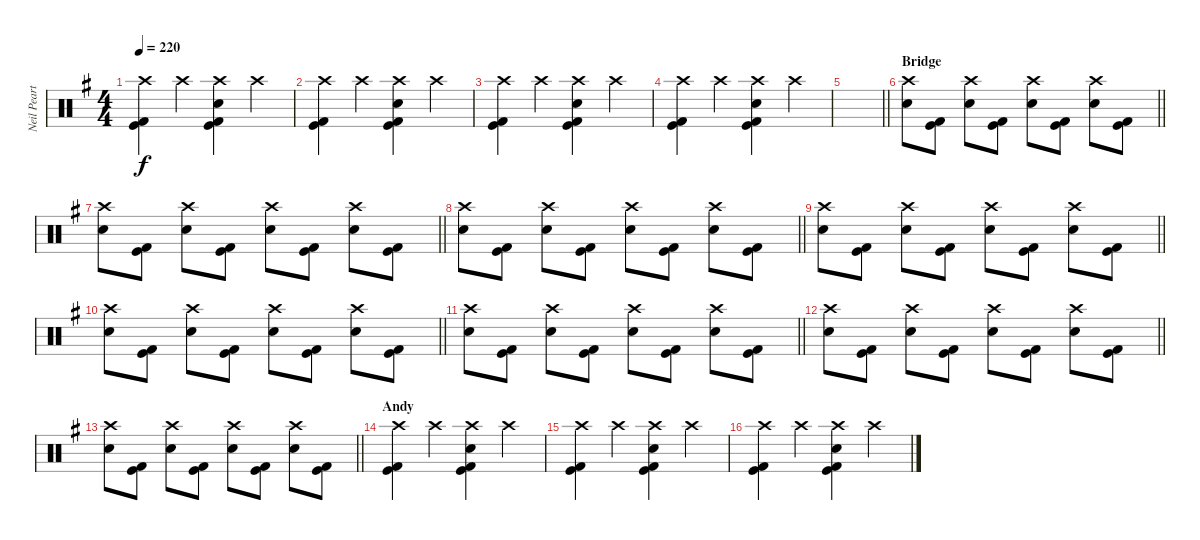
\track ("Neil Peart" "Neil Peart") {instrument percussion}
\staff {score}
\articulation defaults
\ts (4 4)
\tempo 220
\clef neutral
\ks g
("Crash high (hit)" "Kick (hit)" "Kick (hit) 2").4{dy f} "Crash high (hit)".4 ("Crash high (hit)" "Snare (hit) 2" "Kick (hit)" "Kick (hit) 2").4 "Crash high (hit)".4 |
("Crash high (hit)" "Kick (hit)" "Kick (hit) 2").4 "Crash high (hit)".4 ("Crash high (hit)" "Snare (hit) 2" "Kick (hit)" "Kick (hit) 2").4 "Crash high (hit)".4 |
("Crash high (hit)" "Kick (hit)" "Kick (hit) 2").4 "Crash high (hit)".4 ("Crash high (hit)" "Snare (hit) 2" "Kick (hit)" "Kick (hit) 2").4 "Crash high (hit)".4 |
("Crash high (hit)" "Kick (hit)" "Kick (hit) 2").4 "Crash high (hit)".4 ("Crash high (hit)" "Snare (hit) 2" "Kick (hit)" "Kick (hit) 2").4 "Crash high (hit)".4 |
\barLineRight lightlight
|
\section ("" "Bridge")
\barLineRight lightlight
("Crash high (hit)" "Snare (hit) 2").8 ("Kick (hit) 2" "Kick (hit)").8 ("Crash high (hit)" "Snare (hit) 2").8 ("Kick (hit) 2" "Kick (hit)").8 ("Crash high (hit)" "Snare (hit) 2").8 ("Kick (hit) 2" "Kick (hit)").8 ("Crash high (hit)" "Snare (hit) 2").8 ("Kick (hit) 2" "Kick (hit)").8 |
\barLineRight lightlight
("Crash high (hit)" "Snare (hit) 2").8 ("Kick (hit) 2" "Kick (hit)").8 ("Crash high (hit)" "Snare (hit) 2").8 ("Kick (hit) 2" "Kick (hit)").8 ("Crash high (hit)" "Snare (hit) 2").8 ("Kick (hit) 2" "Kick (hit)").8 ("Crash high (hit)" "Snare (hit) 2").8 ("Kick (hit) 2" "Kick (hit)").8 |
\barLineRight lightlight
("Crash high (hit)" "Snare (hit) 2").8 ("Kick (hit) 2" "Kick (hit)").8 ("Crash high (hit)" "Snare (hit) 2").8 ("Kick (hit) 2" "Kick (hit)").8 ("Crash high (hit)" "Snare (hit) 2").8 ("Kick (hit) 2" "Kick (hit)").8 ("Crash high (hit)" "Snare (hit) 2").8 ("Kick (hit) 2" "Kick (hit)").8 |
\barLineRight lightlight
("Crash high (hit)" "Snare (hit) 2").8 ("Kick (hit) 2" "Kick (hit)").8 ("Crash high (hit)" "Snare (hit) 2").8 ("Kick (hit) 2" "Kick (hit)").8 ("Crash high (hit)" "Snare (hit) 2").8 ("Kick (hit) 2" "Kick (hit)").8 ("Crash high (hit)" "Snare (hit) 2").8 ("Kick (hit) 2" "Kick (hit)").8 |
\barLineRight lightlight
("Crash high (hit)" "Snare (hit) 2").8 ("Kick (hit) 2" "Kick (hit)").8 ("Crash high (hit)" "Snare (hit) 2").8 ("Kick (hit) 2" "Kick (hit)").8 ("Crash high (hit)" "Snare (hit) 2").8 ("Kick (hit) 2" "Kick (hit)").8 ("Crash high (hit)" "Snare (hit) 2").8 ("Kick (hit) 2" "Kick (hit)").8 |
\barLineRight lightlight
("Crash high (hit)" "Snare (hit) 2").8 ("Kick (hit) 2" "Kick (hit)").8 ("Crash high (hit)" "Snare (hit) 2").8 ("Kick (hit) 2" "Kick (hit)").8 ("Crash high (hit)" "Snare (hit) 2").8 ("Kick (hit) 2" "Kick (hit)").8 ("Crash high (hit)" "Snare (hit) 2").8 ("Kick (hit) 2" "Kick (hit)").8 |
\barLineRight lightlight
("Crash high (hit)" "Snare (hit) 2").8 ("Kick (hit) 2" "Kick (hit)").8 ("Crash high (hit)" "Snare (hit) 2").8 ("Kick (hit) 2" "Kick (hit)").8 ("Crash high (hit)" "Snare (hit) 2").8 ("Kick (hit) 2" "Kick (hit)").8 ("Crash high (hit)" "Snare (hit) 2").8 ("Kick (hit) 2" "Kick (hit)").8 |
\barLineRight lightlight
("Crash high (hit)" "Snare (hit) 2").8 ("Kick (hit) 2" "Kick (hit)").8 ("Crash high (hit)" "Snare (hit) 2").8 ("Kick (hit) 2" "Kick (hit)").8 ("Crash high (hit)" "Snare (hit) 2").8 ("Kick (hit) 2" "Kick (hit)").8 ("Crash high (hit)" "Snare (hit) 2").8 ("Kick (hit) 2" "Kick (hit)").8 |
\section ("" "Andy")
("Crash high (hit)" "Kick (hit)" "Kick (hit) 2").4 "Crash high (hit)".4 ("Crash high (hit)" "Snare (hit) 2" "Kick (hit)" "Kick (hit) 2").4 "Crash high (hit)".4 |
("Crash high (hit)" "Kick (hit)" "Kick (hit) 2").4 "Crash high (hit)".4 ("Crash high (hit)" "Snare (hit) 2" "Kick (hit)" "Kick (hit) 2").4 "Crash high (hit)".4 |
("Crash high (hit)" "Kick (hit)" "Kick (hit) 2").4 "Crash high (hit)".4 ("Crash high (hit)" "Snare (hit) 2" "Kick (hit)" "Kick (hit) 2").4 "Crash high (hit)".4
